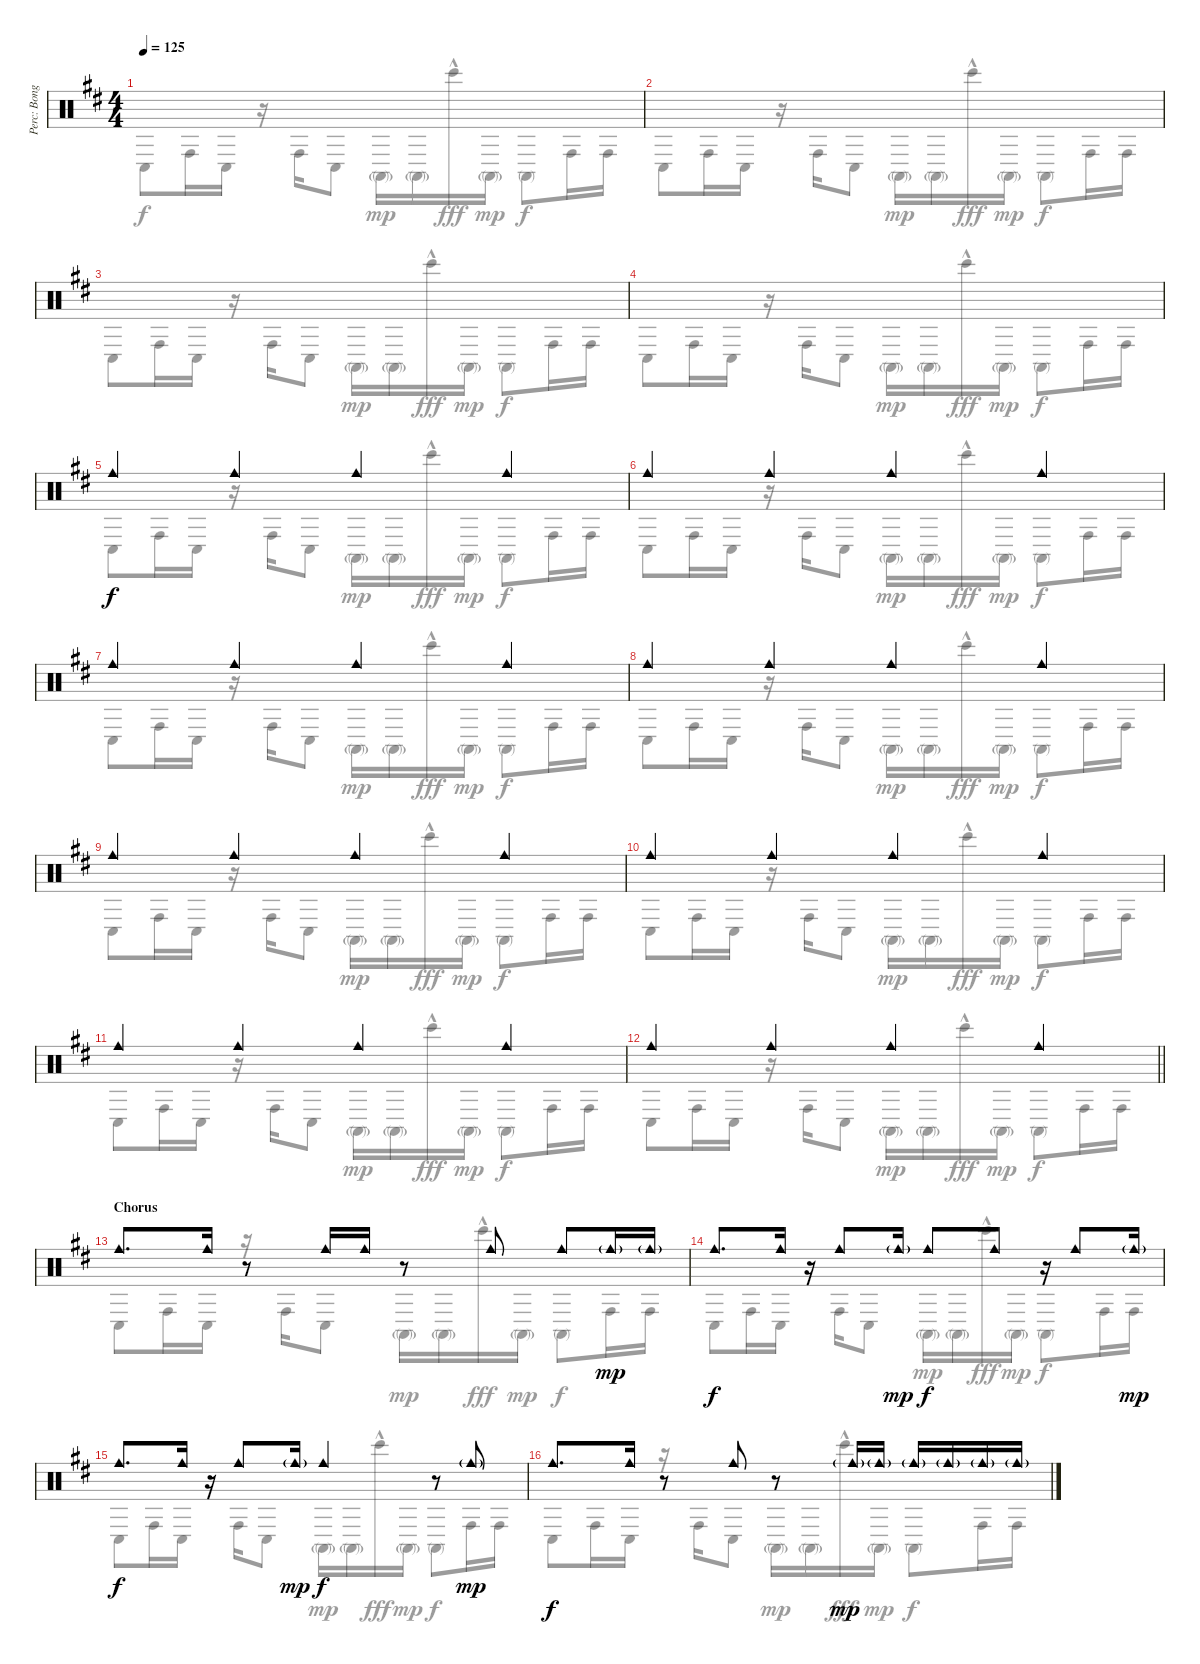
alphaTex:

\track ("Perc: Bongos + Cowbell + Triangle" "Perc: Bong") {instrument percussion}
\staff {score}
\articulation defaults
\voice
\ts (4 4)
\tempo 125
\clef neutral
\ks bminor
|
|
|
|
"Cowbell medium (hit)".4{dy f} "Cowbell medium (hit)".4 "Cowbell medium (hit)".4 "Cowbell medium (hit)".4 |
"Cowbell medium (hit)".4 "Cowbell medium (hit)".4 "Cowbell medium (hit)".4 "Cowbell medium (hit)".4 |
"Cowbell medium (hit)".4 "Cowbell medium (hit)".4 "Cowbell medium (hit)".4 "Cowbell medium (hit)".4 |
"Cowbell medium (hit)".4 "Cowbell medium (hit)".4 "Cowbell medium (hit)".4 "Cowbell medium (hit)".4 |
"Cowbell medium (hit)".4 "Cowbell medium (hit)".4 "Cowbell medium (hit)".4 "Cowbell medium (hit)".4 |
"Cowbell medium (hit)".4 "Cowbell medium (hit)".4 "Cowbell medium (hit)".4 "Cowbell medium (hit)".4 |
"Cowbell medium (hit)".4 "Cowbell medium (hit)".4 "Cowbell medium (hit)".4 "Cowbell medium (hit)".4 |
\barLineRight lightlight "Cowbell medium (hit)".4 "Cowbell medium (hit)".4 "Cowbell medium (hit)".4 "Cowbell medium (hit)".4
|
\section ("" "Chorus")
"Cowbell medium (hit)".8{d} "Cowbell medium (hit)".16 r.8 "Cowbell medium (hit)".16 "Cowbell medium (hit)".16 r.8 "Cowbell medium (hit)".8 "Cowbell medium (hit)".8 "Cowbell medium (hit)"{g}.16{dy mp} "Cowbell medium (hit)"{g}.16 |
"Cowbell medium (hit)".8{d dy f} "Cowbell medium (hit)".16 r.16 "Cowbell medium (hit)".8 "Cowbell medium (hit)"{g}.16{dy mp} "Cowbell medium (hit)".8{dy f} "Cowbell medium (hit)".8 r.16 "Cowbell medium (hit)".8 "Cowbell medium (hit)"{g}.16{dy mp} |
"Cowbell medium (hit)".8{d dy f} "Cowbell medium (hit)".16 r.16 "Cowbell medium (hit)".8 "Cowbell medium (hit)"{g}.16{dy mp} "Cowbell medium (hit)".4{dy f} r.8 "Cowbell medium (hit)"{g}.8{dy mp} |
"Cowbell medium (hit)".8{d dy f} "Cowbell medium (hit)".16 r.8 "Cowbell medium (hit)".8 r.8 "Cowbell medium (hit)"{g}.16{dy mp} "Cowbell medium (hit)"{g}.16 "Cowbell medium (hit)"{g}.16 "Cowbell medium (hit)"{g}.16 "Cowbell medium (hit)"{g}.16 "Cowbell medium (hit)"{g}.16
\voice
\clef neutral
\ottava regular
\simile none
\ks bminor "Conga low (hit)".8{dy f} "Conga high (hit)".16 "Conga low (hit)".16
r.16 "Conga high (hit)".16 "Conga low (hit)".8 "Conga high (mute)"{g}.16{dy mp} "Conga high (mute)"{g}.16 "Bongo High (hit)"{hac}.16{dy fff} "Conga high (mute)"{g}.16{dy mp} "Conga high (mute)".8{dy f} "Conga high (hit)".16 "Conga high (hit)".16 |
"Conga low (hit)".8 "Conga high (hit)".16 "Conga low (hit)".16 r.16 "Conga high (hit)".16 "Conga low (hit)".8 "Conga high (mute)"{g}.16{dy mp} "Conga high (mute)"{g}.16 "Bongo High (hit)"{hac}.16{dy fff} "Conga high (mute)"{g}.16{dy mp} "Conga high (mute)".8{dy f} "Conga high (hit)".16 "Conga high (hit)".16 |
"Conga low (hit)".8 "Conga high (hit)".16 "Conga low (hit)".16 r.16 "Conga high (hit)".16 "Conga low (hit)".8 "Conga high (mute)"{g}.16{dy mp} "Conga high (mute)"{g}.16 "Bongo High (hit)"{hac}.16{dy fff} "Conga high (mute)"{g}.16{dy mp} "Conga high (mute)".8{dy f} "Conga high (hit)".16 "Conga high (hit)".16 |
"Conga low (hit)".8 "Conga high (hit)".16 "Conga low (hit)".16 r.16 "Conga high (hit)".16 "Conga low (hit)".8 "Conga high (mute)"{g}.16{dy mp} "Conga high (mute)"{g}.16 "Bongo High (hit)"{hac}.16{dy fff} "Conga high (mute)"{g}.16{dy mp} "Conga high (mute)".8{dy f} "Conga high (hit)".16 "Conga high (hit)".16 |
"Conga low (hit)".8 "Conga high (hit)".16 "Conga low (hit)".16 r.16 "Conga high (hit)".16 "Conga low (hit)".8 "Conga high (mute)"{g}.16{dy mp} "Conga high (mute)"{g}.16 "Bongo High (hit)"{hac}.16{dy fff} "Conga high (mute)"{g}.16{dy mp} "Conga high (mute)".8{dy f} "Conga high (hit)".16 "Conga high (hit)".16 |
"Conga low (hit)".8 "Conga high (hit)".16 "Conga low (hit)".16 r.16 "Conga high (hit)".16 "Conga low (hit)".8 "Conga high (mute)"{g}.16{dy mp} "Conga high (mute)"{g}.16 "Bongo High (hit)"{hac}.16{dy fff} "Conga high (mute)"{g}.16{dy mp} "Conga high (mute)".8{dy f} "Conga high (hit)".16 "Conga high (hit)".16 |
"Conga low (hit)".8 "Conga high (hit)".16 "Conga low (hit)".16 r.16 "Conga high (hit)".16 "Conga low (hit)".8 "Conga high (mute)"{g}.16{dy mp} "Conga high (mute)"{g}.16 "Bongo High (hit)"{hac}.16{dy fff} "Conga high (mute)"{g}.16{dy mp} "Conga high (mute)".8{dy f} "Conga high (hit)".16 "Conga high (hit)".16 |
"Conga low (hit)".8 "Conga high (hit)".16 "Conga low (hit)".16 r.16 "Conga high (hit)".16 "Conga low (hit)".8 "Conga high (mute)"{g}.16{dy mp} "Conga high (mute)"{g}.16 "Bongo High (hit)"{hac}.16{dy fff} "Conga high (mute)"{g}.16{dy mp} "Conga high (mute)".8{dy f} "Conga high (hit)".16 "Conga high (hit)".16 |
"Conga low (hit)".8 "Conga high (hit)".16 "Conga low (hit)".16 r.16 "Conga high (hit)".16 "Conga low (hit)".8 "Conga high (mute)"{g}.16{dy mp} "Conga high (mute)"{g}.16 "Bongo High (hit)"{hac}.16{dy fff} "Conga high (mute)"{g}.16{dy mp} "Conga high (mute)".8{dy f} "Conga high (hit)".16 "Conga high (hit)".16 |
"Conga low (hit)".8 "Conga high (hit)".16 "Conga low (hit)".16 r.16 "Conga high (hit)".16 "Conga low (hit)".8 "Conga high (mute)"{g}.16{dy mp} "Conga high (mute)"{g}.16 "Bongo High (hit)"{hac}.16{dy fff} "Conga high (mute)"{g}.16{dy mp} "Conga high (mute)".8{dy f} "Conga high (hit)".16 "Conga high (hit)".16 |
"Conga low (hit)".8 "Conga high (hit)".16 "Conga low (hit)".16 r.16 "Conga high (hit)".16 "Conga low (hit)".8 "Conga high (mute)"{g}.16{dy mp} "Conga high (mute)"{g}.16 "Bongo High (hit)"{hac}.16{dy fff} "Conga high (mute)"{g}.16{dy mp} "Conga high (mute)".8{dy f} "Conga high (hit)".16 "Conga high (hit)".16 |
\barLineRight lightlight "Conga low (hit)".8 "Conga high (hit)".16 "Conga low (hit)".16
r.16 "Conga high (hit)".16 "Conga low (hit)".8 "Conga high (mute)"{g}.16{dy mp} "Conga high (mute)"{g}.16 "Bongo High (hit)"{hac}.16{dy fff} "Conga high (mute)"{g}.16{dy mp} "Conga high (mute)".8{dy f} "Conga high (hit)".16 "Conga high (hit)".16 |
"Conga low (hit)".8 "Conga high (hit)".16 "Conga low (hit)".16 r.16 "Conga high (hit)".16 "Conga low (hit)".8 "Conga high (mute)"{g}.16{dy mp} "Conga high (mute)"{g}.16 "Bongo High (hit)"{hac}.16{dy fff} "Conga high (mute)"{g}.16{dy mp} "Conga high (mute)".8{dy f} "Conga high (hit)".16 "Conga high (hit)".16 |
"Conga low (hit)".8 "Conga high (hit)".16 "Conga low (hit)".16 r.16 "Conga high (hit)".16 "Conga low (hit)".8 "Conga high (mute)"{g}.16{dy mp} "Conga high (mute)"{g}.16 "Bongo High (hit)"{hac}.16{dy fff} "Conga high (mute)"{g}.16{dy mp} "Conga high (mute)".8{dy f} "Conga high (hit)".16 "Conga high (hit)".16 |
"Conga low (hit)".8 "Conga high (hit)".16 "Conga low (hit)".16 r.16 "Conga high (hit)".16 "Conga low (hit)".8 "Conga high (mute)"{g}.16{dy mp} "Conga high (mute)"{g}.16 "Bongo High (hit)"{hac}.16{dy fff} "Conga high (mute)"{g}.16{dy mp} "Conga high (mute)".8{dy f} "Conga high (hit)".16 "Conga high (hit)".16 |
"Conga low (hit)".8 "Conga high (hit)".16 "Conga low (hit)".16 r.16 "Conga high (hit)".16 "Conga low (hit)".8 "Conga high (mute)"{g}.16{dy mp} "Conga high (mute)"{g}.16 "Bongo High (hit)"{hac}.16{dy fff} "Conga high (mute)"{g}.16{dy mp} "Conga high (mute)".8{dy f} "Conga high (hit)".16 "Conga high (hit)".16
